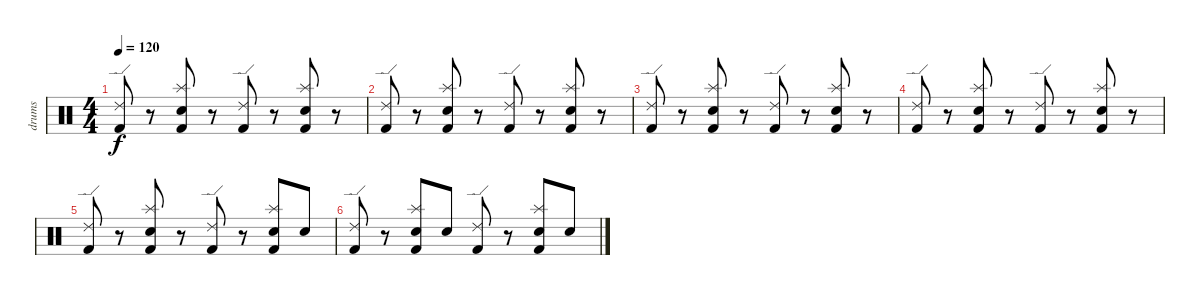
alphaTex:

\track ("drums" "drums") {instrument percussion}
\staff {score}
\articulation defaults
\ts (4 4)
\tempo 120
\clef neutral
\ks c
("Ride (edge) 2" "Kick (hit) 2").8{dy f} r.8 ("Splash (hit)" "Snare (hit) 2" "Kick (hit) 2").8 r.8 ("Ride (edge) 2" "Kick (hit) 2").8 r.8 ("Splash (hit)" "Snare (hit) 2" "Kick (hit) 2").8 r.8 |
("Ride (edge) 2" "Kick (hit) 2").8 r.8 ("Splash (hit)" "Snare (hit) 2" "Kick (hit) 2").8 r.8 ("Ride (edge) 2" "Kick (hit) 2").8 r.8 ("Splash (hit)" "Snare (hit) 2" "Kick (hit) 2").8 r.8 |
("Ride (edge) 2" "Kick (hit) 2").8 r.8 ("Splash (hit)" "Snare (hit) 2" "Kick (hit) 2").8 r.8 ("Ride (edge) 2" "Kick (hit) 2").8 r.8 ("Splash (hit)" "Snare (hit) 2" "Kick (hit) 2").8 r.8 |
("Ride (edge) 2" "Kick (hit) 2").8 r.8 ("Splash (hit)" "Snare (hit) 2" "Kick (hit) 2").8 r.8 ("Ride (edge) 2" "Kick (hit) 2").8 r.8 ("Splash (hit)" "Snare (hit) 2" "Kick (hit) 2").8 r.8 |
("Ride (edge) 2" "Kick (hit) 2").8 r.8 ("Splash (hit)" "Snare (hit) 2" "Kick (hit) 2").8 r.8 ("Ride (edge) 2" "Kick (hit) 2").8 r.8 ("Splash (hit)" "Snare (hit) 2" "Kick (hit) 2").8 "Snare (hit) 2".8 |
("Ride (edge) 2" "Kick (hit) 2").8 r.8 ("Splash (hit)" "Snare (hit) 2" "Kick (hit) 2").8 "Snare (hit) 2".8 ("Ride (edge) 2" "Kick (hit) 2").8 r.8 ("Splash (hit)" "Snare (hit) 2" "Kick (hit) 2").8 "Snare (hit) 2".8
